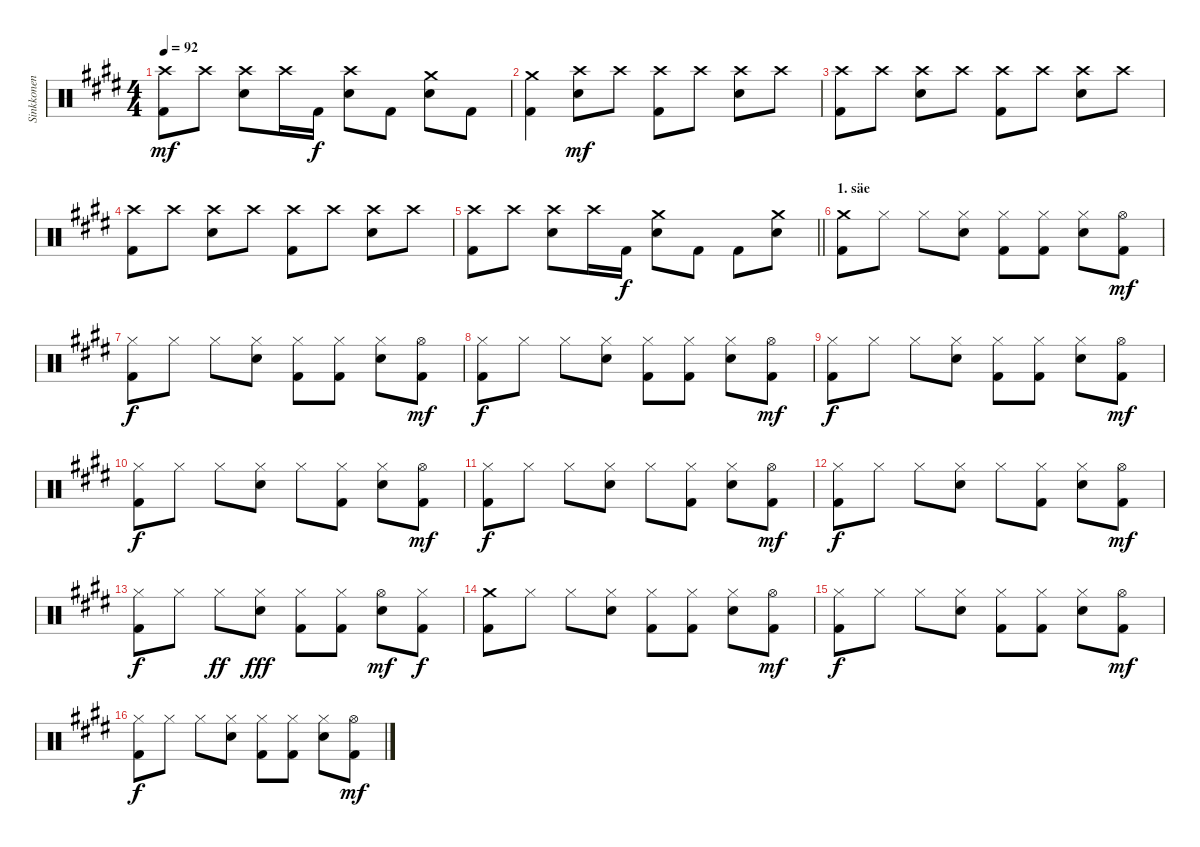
\track ("Sinkkonen" "Sinkkonen") {instrument percussion}
\staff {score}
\articulation defaults
\ts (4 4)
\tempo 92
\clef neutral
\ks c#minor
("Kick (hit) 2" "Crash high (hit)").8{dy mf} "Crash high (hit)".8 ("Crash high (hit)" "Snare (hit) 2").8 "Crash high (hit)".16 "Kick (hit) 2".16{dy f} ("Crash high (hit)" "Snare (hit) 2").8 "Kick (hit) 2".8 ("Crash medium (hit)" "Snare (hit) 2").8 "Kick (hit) 2".8 |
("Kick (hit) 2" "Crash medium (hit)").4 ("Crash high (hit)" "Snare (hit) 2").8{dy mf} "Crash high (hit)".8 ("Kick (hit) 2" "Crash high (hit)").8 "Crash high (hit)".8 ("Crash high (hit)" "Snare (hit) 2").8 "Crash high (hit)".8 |
("Kick (hit) 2" "Crash high (hit)").8 "Crash high (hit)".8 ("Crash high (hit)" "Snare (hit) 2").8 "Crash high (hit)".8 ("Kick (hit) 2" "Crash high (hit)").8 "Crash high (hit)".8 ("Crash high (hit)" "Snare (hit) 2").8 "Crash high (hit)".8 |
("Kick (hit) 2" "Crash high (hit)").8 "Crash high (hit)".8 ("Crash high (hit)" "Snare (hit) 2").8 "Crash high (hit)".8 ("Kick (hit) 2" "Crash high (hit)").8 "Crash high (hit)".8 ("Crash high (hit)" "Snare (hit) 2").8 "Crash high (hit)".8 |
\barLineRight lightlight
("Kick (hit) 2" "Crash high (hit)").8 "Crash high (hit)".8 ("Crash high (hit)" "Snare (hit) 2").8 "Crash high (hit)".16 "Kick (hit) 2".16{dy f} ("Crash medium (hit)" "Snare (hit) 2").8 "Kick (hit) 2".8 "Kick (hit) 2".8 ("Crash medium (hit)" "Snare (hit) 2").8 |
\section ("" "1. säe")
("Kick (hit) 2" "Crash medium (hit)").8 "Hi-Hat (closed)".8 "Hi-Hat (closed)".8 ("Hi-Hat (closed)" "Snare (hit) 2").8 ("Kick (hit) 2" "Hi-Hat (closed)").8 ("Kick (hit) 2" "Hi-Hat (closed)").8 ("Hi-Hat (closed)" "Snare (hit) 2").8 ("Kick (hit) 2" "Hi-Hat (open)").8{dy mf} |
("Kick (hit) 2" "Hi-Hat (closed)").8{dy f} "Hi-Hat (closed)".8 "Hi-Hat (closed)".8 ("Hi-Hat (closed)" "Snare (hit) 2").8 ("Kick (hit) 2" "Hi-Hat (closed)").8 ("Kick (hit) 2" "Hi-Hat (closed)").8 ("Hi-Hat (closed)" "Snare (hit) 2").8 ("Kick (hit) 2" "Hi-Hat (open)").8{dy mf} |
("Kick (hit) 2" "Hi-Hat (closed)").8{dy f} "Hi-Hat (closed)".8 "Hi-Hat (closed)".8 ("Hi-Hat (closed)" "Snare (hit) 2").8 ("Kick (hit) 2" "Hi-Hat (closed)").8 ("Kick (hit) 2" "Hi-Hat (closed)").8 ("Hi-Hat (closed)" "Snare (hit) 2").8 ("Kick (hit) 2" "Hi-Hat (open)").8{dy mf} |
("Kick (hit) 2" "Hi-Hat (closed)").8{dy f} "Hi-Hat (closed)".8 "Hi-Hat (closed)".8 ("Hi-Hat (closed)" "Snare (hit) 2").8 ("Kick (hit) 2" "Hi-Hat (closed)").8 ("Kick (hit) 2" "Hi-Hat (closed)").8 ("Hi-Hat (closed)" "Snare (hit) 2").8 ("Kick (hit) 2" "Hi-Hat (open)").8{dy mf} |
("Kick (hit) 2" "Hi-Hat (closed)").8{dy f} "Hi-Hat (closed)".8 "Hi-Hat (closed)".8 ("Hi-Hat (closed)" "Snare (hit) 2").8 "Hi-Hat (closed)".8 ("Kick (hit) 2" "Hi-Hat (closed)").8 ("Hi-Hat (closed)" "Snare (hit) 2").8 ("Kick (hit) 2" "Hi-Hat (open)").8{dy mf} |
("Kick (hit) 2" "Hi-Hat (closed)").8{dy f} "Hi-Hat (closed)".8 "Hi-Hat (closed)".8 ("Hi-Hat (closed)" "Snare (hit) 2").8 "Hi-Hat (closed)".8 ("Kick (hit) 2" "Hi-Hat (closed)").8 ("Hi-Hat (closed)" "Snare (hit) 2").8 ("Kick (hit) 2" "Hi-Hat (open)").8{dy mf} |
("Kick (hit) 2" "Hi-Hat (closed)").8{dy f} "Hi-Hat (closed)".8 "Hi-Hat (closed)".8 ("Hi-Hat (closed)" "Snare (hit) 2").8 "Hi-Hat (closed)".8 ("Kick (hit) 2" "Hi-Hat (closed)").8 ("Hi-Hat (closed)" "Snare (hit) 2").8 ("Kick (hit) 2" "Hi-Hat (open)").8{dy mf} |
("Kick (hit) 2" "Hi-Hat (closed)").8{dy f} "Hi-Hat (closed)".8 "Hi-Hat (closed)".8{dy ff} ("Hi-Hat (closed)" "Snare (hit) 2").8{dy fff} ("Kick (hit) 2" "Hi-Hat (closed)").8 ("Kick (hit) 2" "Hi-Hat (closed)").8 ("Hi-Hat (open)" "Snare (hit) 2").8{dy mf} ("Kick (hit) 2" "Hi-Hat (closed)").8{dy f} |
("Kick (hit) 2" "Crash medium (hit)").8 "Hi-Hat (closed)".8 "Hi-Hat (closed)".8 ("Hi-Hat (closed)" "Snare (hit) 2").8 ("Kick (hit) 2" "Hi-Hat (closed)").8 ("Kick (hit) 2" "Hi-Hat (closed)").8 ("Hi-Hat (closed)" "Snare (hit) 2").8 ("Kick (hit) 2" "Hi-Hat (open)").8{dy mf} |
("Kick (hit) 2" "Hi-Hat (closed)").8{dy f} "Hi-Hat (closed)".8 "Hi-Hat (closed)".8 ("Hi-Hat (closed)" "Snare (hit) 2").8 ("Kick (hit) 2" "Hi-Hat (closed)").8 ("Kick (hit) 2" "Hi-Hat (closed)").8 ("Hi-Hat (closed)" "Snare (hit) 2").8 ("Kick (hit) 2" "Hi-Hat (open)").8{dy mf} |
("Kick (hit) 2" "Hi-Hat (closed)").8{dy f} "Hi-Hat (closed)".8 "Hi-Hat (closed)".8 ("Hi-Hat (closed)" "Snare (hit) 2").8 ("Kick (hit) 2" "Hi-Hat (closed)").8 ("Kick (hit) 2" "Hi-Hat (closed)").8 ("Hi-Hat (closed)" "Snare (hit) 2").8 ("Kick (hit) 2" "Hi-Hat (open)").8{dy mf}
